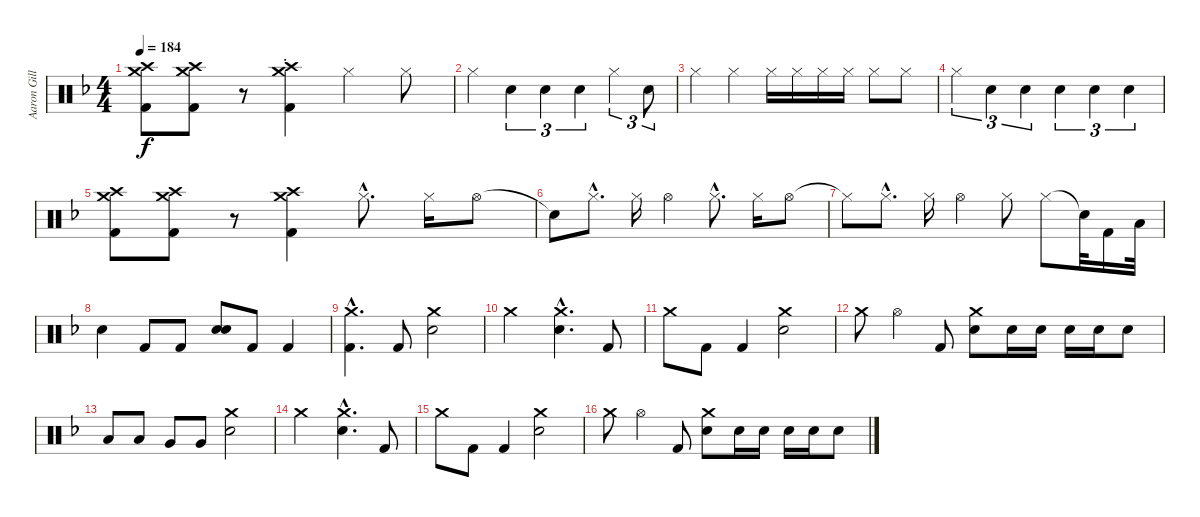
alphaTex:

\track ("Aaron Gillespie" "Aaron Gill") {instrument percussion}
\staff {score}
\articulation defaults
\ts (4 4)
\tempo 184
\clef neutral
\ks dminor
("Crash medium (hit)" "Crash high (hit)" "Kick (hit) 2").8{dy f} ("Crash medium (hit)" "Crash high (hit)" "Kick (hit) 2").8 r.8 ("Crash medium (hit)" "Crash high (hit)"{st} "Kick (hit) 2").4 "Hi-Hat (closed)".4 "Hi-Hat (closed)".8 |
"Hi-Hat (closed)".4 "Snare (hit) 2".4{tu (3 2)} "Snare (hit) 2".4{tu (3 2)} "Snare (hit) 2".4{tu (3 2)} "Hi-Hat (closed)".4{tu (3 2)} "Snare (hit) 2".8{tu (3 2)} |
"Hi-Hat (closed)".4 "Hi-Hat (closed)".4 "Hi-Hat (closed)".16 "Hi-Hat (closed)".16 "Hi-Hat (closed)".16 "Hi-Hat (closed)".16 "Hi-Hat (closed)".8 "Hi-Hat (closed)".8 |
"Hi-Hat (closed)".4{tu (3 2)} "Snare (hit) 2".4{tu (3 2)} "Snare (hit) 2".4{tu (3 2)} "Snare (hit) 2".4{tu (3 2)} "Snare (hit) 2".4{tu (3 2)} "Snare (hit) 2".4{tu (3 2)} |
("Crash medium (hit)" "Crash high (hit)" "Kick (hit) 2").8 ("Crash medium (hit)" "Crash high (hit)" "Kick (hit) 2").8 r.8 ("Crash medium (hit)" "Crash high (hit)" "Kick (hit) 2").4 "Hi-Hat (closed)"{hac}.8{d} "Hi-Hat (closed)".16 "Hi-Hat (open)".8 |
"Snare (hit)"{t}.8 "Hi-Hat (closed)"{hac}.8{d} "Hi-Hat (closed)".16 "Hi-Hat (open)".4 "Hi-Hat (closed)"{hac}.8{d} "Hi-Hat (closed)".16 "Hi-Hat (open)".8 |
"Hi-Hat (closed)"{t}.8 "Hi-Hat (closed)"{hac}.8{d} "Hi-Hat (closed)".16 "Hi-Hat (open)".4 "Hi-Hat (closed)".8 "Hi-Hat (closed)".8 "Snare (hit)"{t}.32 "Kick (hit) 2".16 "Low Tom (hit)".32 |
"Snare (hit) 2".4 "Kick (hit) 2".8 "Kick (hit) 2".8 ("Snare (hit) 2" "Snare (hit) 2").8 "Kick (hit) 2".8 "Kick (hit) 2".4 |
("Crash medium (hit)"{hac} "Kick (hit) 2"{hac}).4{d} "Kick (hit) 2".8 ("Crash medium (hit)" "Snare (hit) 2").2 |
"Crash medium (hit)".2 ("Crash medium (hit)"{hac} "Snare (hit) 2"{hac}).4{d} "Kick (hit) 2".8 |
"Crash medium (hit)".8 "Kick (hit) 2".8 "Kick (hit) 2".4 ("Crash medium (hit)" "Snare (hit) 2").2 |
"Crash medium (hit)".8 "Hi-Hat (open)".4 "Kick (hit) 2".8 ("Crash medium (hit)" "Snare (hit) 2").8 "Snare (hit) 2".16 "Snare (hit) 2".16 "Snare (hit) 2".16 "Snare (hit) 2".16 "Snare (hit) 2".8 |
"Low Tom (hit)".8 "Low Tom (hit)".8 "Very Low Tom (hit)".8 "Very Low Tom (hit)".8 ("Crash medium (hit)" "Snare (hit) 2").2 |
"Crash medium (hit)".2 ("Crash medium (hit)"{hac} "Snare (hit) 2"{hac}).4{d} "Kick (hit) 2".8 |
"Crash medium (hit)".8 "Kick (hit) 2".8 "Kick (hit) 2".4 ("Crash medium (hit)" "Snare (hit) 2").2 |
"Crash medium (hit)".8 "Hi-Hat (open)".4 "Kick (hit) 2".8 ("Crash medium (hit)" "Snare (hit) 2").8 "Snare (hit) 2".16 "Snare (hit) 2".16 "Snare (hit) 2".16 "Snare (hit) 2".16 "Snare (hit) 2".8
